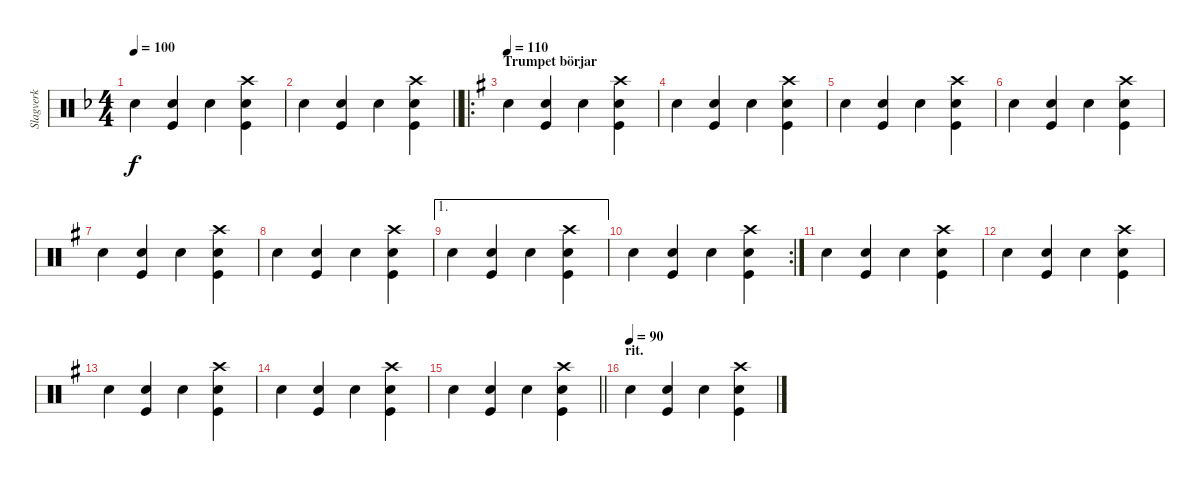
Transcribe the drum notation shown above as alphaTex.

\track ("Slagverk" "Slagverk") {instrument percussion}
\staff {score}
\articulation defaults
\ts (4 4)
\tempo 100
\clef neutral
\ks f "Snare (hit) 2".4{dy f}
("Snare (hit) 2" "Kick (hit)").4 "Snare (hit) 2".4 ("Snare (hit) 2" "Crash high (hit)" "Kick (hit)").4 |
\barLineRight lightlight "Snare (hit) 2".4
("Snare (hit) 2" "Kick (hit)").4 "Snare (hit) 2".4 ("Snare (hit) 2" "Crash high (hit)" "Kick (hit)").4 |
\ro
\section ("" "Trumpet börjar")
\tempo 110
\ks g "Snare (hit) 2".4{volume 16}
("Snare (hit) 2" "Kick (hit)").4 "Snare (hit) 2".4 ("Snare (hit) 2" "Crash high (hit)" "Kick (hit)").4 |
"Snare (hit) 2".4 ("Snare (hit) 2" "Kick (hit)").4 "Snare (hit) 2".4 ("Snare (hit) 2" "Crash high (hit)" "Kick (hit)").4 |
"Snare (hit) 2".4 ("Snare (hit) 2" "Kick (hit)").4 "Snare (hit) 2".4 ("Snare (hit) 2" "Crash high (hit)" "Kick (hit)").4 |
"Snare (hit) 2".4 ("Snare (hit) 2" "Kick (hit)").4 "Snare (hit) 2".4 ("Snare (hit) 2" "Crash high (hit)" "Kick (hit)").4 |
"Snare (hit) 2".4 ("Snare (hit) 2" "Kick (hit)").4 "Snare (hit) 2".4 ("Snare (hit) 2" "Crash high (hit)" "Kick (hit)").4 |
"Snare (hit) 2".4 ("Snare (hit) 2" "Kick (hit)").4 "Snare (hit) 2".4 ("Snare (hit) 2" "Crash high (hit)" "Kick (hit)").4 |
\ae 1 "Snare (hit) 2".4
("Snare (hit) 2" "Kick (hit)").4 "Snare (hit) 2".4 ("Snare (hit) 2" "Crash high (hit)" "Kick (hit)").4 |
\rc 2 "Snare (hit) 2".4
("Snare (hit) 2" "Kick (hit)").4 "Snare (hit) 2".4 ("Snare (hit) 2" "Crash high (hit)" "Kick (hit)").4 |
"Snare (hit) 2".4 ("Snare (hit) 2" "Kick (hit)").4 "Snare (hit) 2".4 ("Snare (hit) 2" "Crash high (hit)" "Kick (hit)").4 |
"Snare (hit) 2".4 ("Snare (hit) 2" "Kick (hit)").4 "Snare (hit) 2".4 ("Snare (hit) 2" "Crash high (hit)" "Kick (hit)").4 |
"Snare (hit) 2".4 ("Snare (hit) 2" "Kick (hit)").4 "Snare (hit) 2".4 ("Snare (hit) 2" "Crash high (hit)" "Kick (hit)").4 |
"Snare (hit) 2".4 ("Snare (hit) 2" "Kick (hit)").4 "Snare (hit) 2".4 ("Snare (hit) 2" "Crash high (hit)" "Kick (hit)").4 |
\barLineRight lightlight "Snare (hit) 2".4
("Snare (hit) 2" "Kick (hit)").4 "Snare (hit) 2".4 ("Snare (hit) 2" "Crash high (hit)" "Kick (hit)").4 |
\section ("" "rit.")
\tempo (90)
"Snare (hit) 2".4 ("Snare (hit) 2" "Kick (hit)").4 "Snare (hit) 2".4 ("Snare (hit) 2" "Crash high (hit)" "Kick (hit)").4
